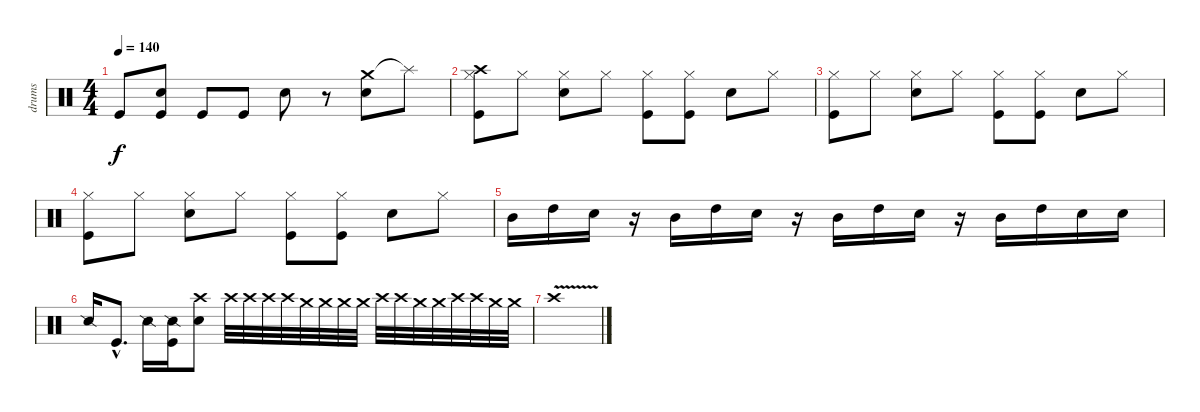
\track ("drums" "drums") {instrument percussion}
\staff {score}
\articulation defaults
\ts (4 4)
\tempo 140
\clef neutral
\ks c "Kick (hit)".8{dy f}
("Snare (hit) 2" "Kick (hit)").8 "Kick (hit)".8 "Kick (hit)".8 "Snare (hit) 2".8 r.8 ("Crash medium (hit)" "Snare (hit) 2").8 "Splash (hit)"{t}.8 |
("Crash high (hit)" "Hi-Hat (closed)" "Kick (hit)").8 "Hi-Hat (closed)".8 ("Hi-Hat (closed)" "Snare (hit) 2").8 "Hi-Hat (closed)".8 ("Hi-Hat (closed)" "Kick (hit)").8 ("Hi-Hat (closed)" "Kick (hit)").8 "Snare (hit) 2".8 "Hi-Hat (closed)".8 |
("Hi-Hat (closed)" "Kick (hit)").8 "Hi-Hat (closed)".8 ("Hi-Hat (closed)" "Snare (hit) 2").8 "Hi-Hat (closed)".8 ("Hi-Hat (closed)" "Kick (hit)").8 ("Hi-Hat (closed)" "Kick (hit)").8 "Snare (hit) 2".8 "Hi-Hat (closed)".8 |
("Hi-Hat (closed)" "Kick (hit)").8 "Hi-Hat (closed)".8 ("Hi-Hat (closed)" "Snare (hit) 2").8 "Hi-Hat (closed)".8 ("Hi-Hat (closed)" "Kick (hit)").8 ("Hi-Hat (closed)" "Kick (hit)").8 "Snare (hit) 2".8 "Hi-Hat (closed)".8 |
"Mid Tom (hit)".16 "High Tom (hit)".16 "Snare (hit) 2".16 r.16 "Mid Tom (hit)".16 "High Tom (hit)".16 "Snare (hit) 2".16 r.16 "Mid Tom (hit)".16 "High Tom (hit)".16 "Snare (hit) 2".16 r.16 "Mid Tom (hit)".16 "High Tom (hit)".16 "Snare (hit) 2".16 "Snare (hit) 2".16 |
"Snare (side stick) 2".16 "Kick (hit)"{hac}.8{d} "Snare (side stick) 2".16 ("Snare (side stick) 2" "Kick (hit)").16 ("Crash high (hit)" "Snare (hit) 2").8 "Crash high (hit)".32 "Crash high (hit)".32 "Crash high (hit)".32 "Crash high (hit)".32 "Crash medium (hit)".32 "Crash medium (hit)".32 "Crash medium (hit)".32 "Crash medium (hit)".32 "Crash high (hit)".32 "Crash high (hit)".32 "Crash medium (hit)".32 "Crash medium (hit)".32 "Crash high (hit)".32 "Crash high (hit)".32 "Crash medium (hit)".32 "Crash medium (hit)".32 |
"Crash high (hit)"{v}.1
